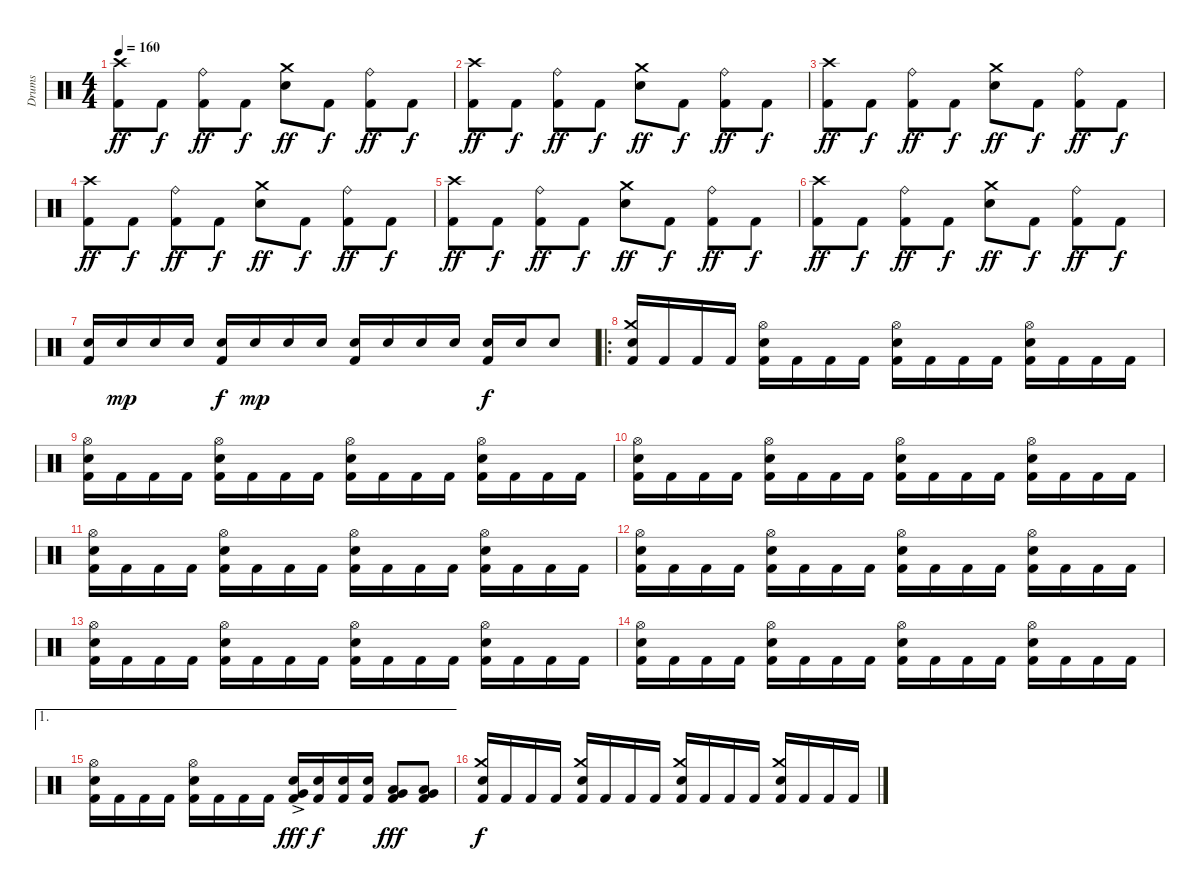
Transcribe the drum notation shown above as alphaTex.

\track ("Drums" "Drums") {instrument percussion}
\staff {score}
\articulation defaults
\ts (4 4)
\tempo 160
\clef neutral
\ks c
("Crash high (hit)" "Kick (hit) 2").8{dy ff} "Kick (hit) 2".8{dy f} ("Ride (bell)" "Kick (hit) 2").8{dy ff} "Kick (hit) 2".8{dy f} ("Crash medium (hit)" "Snare (hit) 2").8{dy ff} "Kick (hit) 2".8{dy f} ("Ride (bell)" "Kick (hit) 2").8{dy ff} "Kick (hit) 2".8{dy f} |
("Crash high (hit)" "Kick (hit) 2").8{dy ff} "Kick (hit) 2".8{dy f} ("Ride (bell)" "Kick (hit) 2").8{dy ff} "Kick (hit) 2".8{dy f} ("Crash medium (hit)" "Snare (hit) 2").8{dy ff} "Kick (hit) 2".8{dy f} ("Ride (bell)" "Kick (hit) 2").8{dy ff} "Kick (hit) 2".8{dy f} |
("Crash high (hit)" "Kick (hit) 2").8{dy ff} "Kick (hit) 2".8{dy f} ("Ride (bell)" "Kick (hit) 2").8{dy ff} "Kick (hit) 2".8{dy f} ("Crash medium (hit)" "Snare (hit) 2").8{dy ff} "Kick (hit) 2".8{dy f} ("Ride (bell)" "Kick (hit) 2").8{dy ff} "Kick (hit) 2".8{dy f} |
("Crash high (hit)" "Kick (hit) 2").8{dy ff} "Kick (hit) 2".8{dy f} ("Ride (bell)" "Kick (hit) 2").8{dy ff} "Kick (hit) 2".8{dy f} ("Crash medium (hit)" "Snare (hit) 2").8{dy ff} "Kick (hit) 2".8{dy f} ("Ride (bell)" "Kick (hit) 2").8{dy ff} "Kick (hit) 2".8{dy f} |
("Crash high (hit)" "Kick (hit) 2").8{dy ff} "Kick (hit) 2".8{dy f} ("Ride (bell)" "Kick (hit) 2").8{dy ff} "Kick (hit) 2".8{dy f} ("Crash medium (hit)" "Snare (hit) 2").8{dy ff} "Kick (hit) 2".8{dy f} ("Ride (bell)" "Kick (hit) 2").8{dy ff} "Kick (hit) 2".8{dy f} |
("Crash high (hit)" "Kick (hit) 2").8{dy ff} "Kick (hit) 2".8{dy f} ("Ride (bell)" "Kick (hit) 2").8{dy ff} "Kick (hit) 2".8{dy f} ("Crash medium (hit)" "Snare (hit) 2").8{dy ff} "Kick (hit) 2".8{dy f} ("Ride (bell)" "Kick (hit) 2").8{dy ff} "Kick (hit) 2".8{dy f} |
("Snare (hit) 2" "Kick (hit) 2").16 "Snare (hit) 2".16{dy mp} "Snare (hit) 2".16 "Snare (hit) 2".16 ("Snare (hit) 2" "Kick (hit) 2").16{dy f} "Snare (hit) 2".16{dy mp} "Snare (hit) 2".16 "Snare (hit) 2".16 ("Snare (hit) 2" "Kick (hit) 2").16 "Snare (hit) 2".16 "Snare (hit) 2".16 "Snare (hit) 2".16 ("Snare (hit) 2" "Kick (hit) 2").16{dy f} "Snare (hit) 2".16 "Snare (hit) 2".8 |
\ro
("Crash medium (hit)" "Snare (hit) 2" "Kick (hit) 2").16 "Kick (hit) 2".16 "Kick (hit) 2".16 "Kick (hit) 2".16 ("Hi-Hat (open)" "Snare (hit) 2" "Kick (hit) 2").16 "Kick (hit) 2".16 "Kick (hit) 2".16 "Kick (hit) 2".16 ("Hi-Hat (open)" "Snare (hit) 2" "Kick (hit) 2").16 "Kick (hit) 2".16 "Kick (hit) 2".16 "Kick (hit) 2".16 ("Hi-Hat (open)" "Snare (hit) 2" "Kick (hit) 2").16 "Kick (hit) 2".16 "Kick (hit) 2".16 "Kick (hit) 2".16 |
("Hi-Hat (open)" "Snare (hit) 2" "Kick (hit) 2").16 "Kick (hit) 2".16 "Kick (hit) 2".16 "Kick (hit) 2".16 ("Hi-Hat (open)" "Snare (hit) 2" "Kick (hit) 2").16 "Kick (hit) 2".16 "Kick (hit) 2".16 "Kick (hit) 2".16 ("Hi-Hat (open)" "Snare (hit) 2" "Kick (hit) 2").16 "Kick (hit) 2".16 "Kick (hit) 2".16 "Kick (hit) 2".16 ("Hi-Hat (open)" "Snare (hit) 2" "Kick (hit) 2").16 "Kick (hit) 2".16 "Kick (hit) 2".16 "Kick (hit) 2".16 |
("Hi-Hat (open)" "Snare (hit) 2" "Kick (hit) 2").16 "Kick (hit) 2".16 "Kick (hit) 2".16 "Kick (hit) 2".16 ("Hi-Hat (open)" "Snare (hit) 2" "Kick (hit) 2").16 "Kick (hit) 2".16 "Kick (hit) 2".16 "Kick (hit) 2".16 ("Hi-Hat (open)" "Snare (hit) 2" "Kick (hit) 2").16 "Kick (hit) 2".16 "Kick (hit) 2".16 "Kick (hit) 2".16 ("Hi-Hat (open)" "Snare (hit) 2" "Kick (hit) 2").16 "Kick (hit) 2".16 "Kick (hit) 2".16 "Kick (hit) 2".16 |
("Hi-Hat (open)" "Snare (hit) 2" "Kick (hit) 2").16 "Kick (hit) 2".16 "Kick (hit) 2".16 "Kick (hit) 2".16 ("Hi-Hat (open)" "Snare (hit) 2" "Kick (hit) 2").16 "Kick (hit) 2".16 "Kick (hit) 2".16 "Kick (hit) 2".16 ("Hi-Hat (open)" "Snare (hit) 2" "Kick (hit) 2").16 "Kick (hit) 2".16 "Kick (hit) 2".16 "Kick (hit) 2".16 ("Hi-Hat (open)" "Snare (hit) 2" "Kick (hit) 2").16 "Kick (hit) 2".16 "Kick (hit) 2".16 "Kick (hit) 2".16 |
("Hi-Hat (open)" "Snare (hit) 2" "Kick (hit) 2").16 "Kick (hit) 2".16 "Kick (hit) 2".16 "Kick (hit) 2".16 ("Hi-Hat (open)" "Snare (hit) 2" "Kick (hit) 2").16 "Kick (hit) 2".16 "Kick (hit) 2".16 "Kick (hit) 2".16 ("Hi-Hat (open)" "Snare (hit) 2" "Kick (hit) 2").16 "Kick (hit) 2".16 "Kick (hit) 2".16 "Kick (hit) 2".16 ("Hi-Hat (open)" "Snare (hit) 2" "Kick (hit) 2").16 "Kick (hit) 2".16 "Kick (hit) 2".16 "Kick (hit) 2".16 |
("Hi-Hat (open)" "Snare (hit) 2" "Kick (hit) 2").16 "Kick (hit) 2".16 "Kick (hit) 2".16 "Kick (hit) 2".16 ("Hi-Hat (open)" "Snare (hit) 2" "Kick (hit) 2").16 "Kick (hit) 2".16 "Kick (hit) 2".16 "Kick (hit) 2".16 ("Hi-Hat (open)" "Snare (hit) 2" "Kick (hit) 2").16 "Kick (hit) 2".16 "Kick (hit) 2".16 "Kick (hit) 2".16 ("Hi-Hat (open)" "Snare (hit) 2" "Kick (hit) 2").16 "Kick (hit) 2".16 "Kick (hit) 2".16 "Kick (hit) 2".16 |
("Hi-Hat (open)" "Snare (hit) 2" "Kick (hit) 2").16 "Kick (hit) 2".16 "Kick (hit) 2".16 "Kick (hit) 2".16 ("Hi-Hat (open)" "Snare (hit) 2" "Kick (hit) 2").16 "Kick (hit) 2".16 "Kick (hit) 2".16 "Kick (hit) 2".16 ("Hi-Hat (open)" "Snare (hit) 2" "Kick (hit) 2").16 "Kick (hit) 2".16 "Kick (hit) 2".16 "Kick (hit) 2".16 ("Hi-Hat (open)" "Snare (hit) 2" "Kick (hit) 2").16 "Kick (hit) 2".16 "Kick (hit) 2".16 "Kick (hit) 2".16 |
\ae 1
("Hi-Hat (open)" "Snare (hit) 2" "Kick (hit) 2").16 "Kick (hit) 2".16 "Kick (hit) 2".16 "Kick (hit) 2".16 ("Hi-Hat (open)" "Snare (hit) 2" "Kick (hit) 2").16 "Kick (hit) 2".16 "Kick (hit) 2".16 "Kick (hit) 2".16 ("Snare (hit) 2" "Very Low Tom (hit)"{ac} "Kick (hit) 2").16{dy fff} ("Snare (hit) 2" "Kick (hit) 2").16{dy f} ("Snare (hit) 2" "Kick (hit) 2").16 ("Snare (hit) 2" "Kick (hit) 2").16 ("Low Tom (hit)" "Very Low Tom (hit)" "Kick (hit) 2").8{dy fff} ("Low Tom (hit)" "Very Low Tom (hit)" "Kick (hit) 2").8 |
("Crash medium (hit)" "Snare (hit) 2" "Kick (hit) 2").16{dy f} "Kick (hit) 2".16 "Kick (hit) 2".16 "Kick (hit) 2".16 ("Crash medium (hit)" "Snare (hit) 2" "Kick (hit) 2").16 "Kick (hit) 2".16 "Kick (hit) 2".16 "Kick (hit) 2".16 ("Crash medium (hit)" "Snare (hit) 2" "Kick (hit) 2").16 "Kick (hit) 2".16 "Kick (hit) 2".16 "Kick (hit) 2".16 ("Crash medium (hit)" "Snare (hit) 2" "Kick (hit) 2").16 "Kick (hit) 2".16 "Kick (hit) 2".16 "Kick (hit) 2".16
